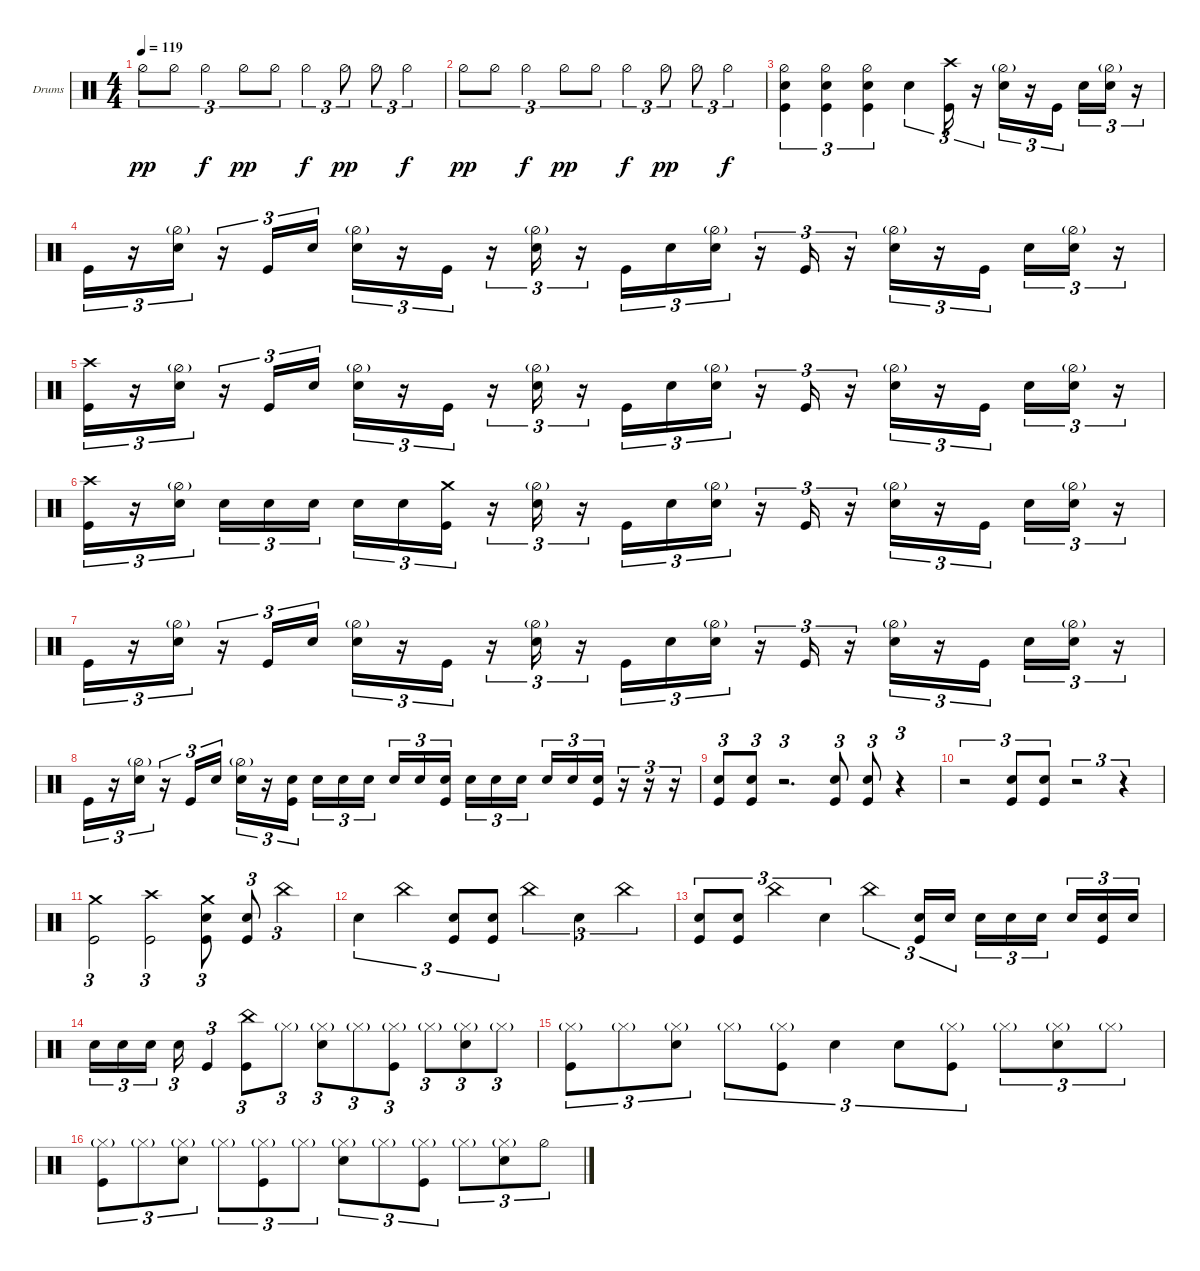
\defaultSystemsLayout 4
\bracketExtendMode groupsimilarinstruments
\firstSystemTrackNameOrientation horizontal
\otherSystemsTrackNameOrientation horizontal
\track ("Drumkit" "Drums") {instrument percussion}
\staff {score}
\articulation defaults
\ts (4 4)
\tempo 119
\clef neutral
\ks c "Hi-Hat (half)".8{tu (3 2) dy pp} "Hi-Hat (half)".8{tu (3 2)} "Hi-Hat (half)".4{tu (3 2) dy f} "Hi-Hat (half)".8{tu (3 2) dy pp} "Hi-Hat (half)".8{tu (3 2)} "Hi-Hat (half)".4{tu (3 2) dy f} "Hi-Hat (half)".8{tu (3 2) dy pp} "Hi-Hat (half)".8{tu (3 2)} "Hi-Hat (half)".4{tu (3 2) dy f}
|
"Hi-Hat (half)".8{tu (3 2) dy pp} "Hi-Hat (half)".8{tu (3 2)} "Hi-Hat (half)".4{tu (3 2) dy f} "Hi-Hat (half)".8{tu (3 2) dy pp} "Hi-Hat (half)".8{tu (3 2)} "Hi-Hat (half)".4{tu (3 2) dy f} "Hi-Hat (half)".8{tu (3 2) dy pp} "Hi-Hat (half)".8{tu (3 2)} "Hi-Hat (half)".4{tu (3 2) dy f} |
("Kick (hit)" "Hi-Hat (half)" "Snare (hit) 2").4{tu (3 2)} ("Kick (hit)" "Hi-Hat (half)" "Snare (hit) 2").4{tu (3 2)} ("Kick (hit)" "Hi-Hat (half)" "Snare (hit) 2").4{tu (3 2)} "Snare (hit) 2".4{tu (3 2)} ("Kick (hit)" "Crash high (hit)").16{tu (3 2)} r.16{tu (3 2)} ("Snare (hit) 2" "Hi-Hat (half)"{g}).16{tu (3 2)} r.16{tu (3 2)} "Kick (hit)".16{tu (3 2)} "Snare (hit) 2".16{tu (3 2)} ("Snare (hit) 2" "Hi-Hat (half)"{g}).16{tu (3 2)} r.16{tu (3 2)} |
"Kick (hit)".16{tu (3 2)} r.16{tu (3 2)} ("Snare (hit) 2" "Hi-Hat (half)"{g}).16{tu (3 2)} r.16{tu (3 2)} "Kick (hit)".16{tu (3 2)} "Snare (hit) 2".16{tu (3 2)} ("Snare (hit) 2" "Hi-Hat (half)"{g}).16{tu (3 2)} r.16{tu (3 2)} "Kick (hit)".16{tu (3 2)} r.16{tu (3 2)} ("Snare (hit) 2" "Hi-Hat (half)"{g}).16{tu (3 2)} r.16{tu (3 2)} "Kick (hit)".16{tu (3 2)} "Snare (hit) 2".16{tu (3 2)} ("Snare (hit) 2" "Hi-Hat (half)"{g}).16{tu (3 2)} r.16{tu (3 2)} "Kick (hit)".16{tu (3 2)} r.16{tu (3 2)} ("Snare (hit) 2" "Hi-Hat (half)"{g}).16{tu (3 2)} r.16{tu (3 2)} "Kick (hit)".16{tu (3 2)} "Snare (hit) 2".16{tu (3 2)} ("Snare (hit) 2" "Hi-Hat (half)"{g}).16{tu (3 2)} r.16{tu (3 2)} |
("Kick (hit)" "Crash high (hit)").16{tu (3 2)} r.16{tu (3 2)} ("Snare (hit) 2" "Hi-Hat (half)"{g}).16{tu (3 2)} r.16{tu (3 2)} "Kick (hit)".16{tu (3 2)} "Snare (hit) 2".16{tu (3 2)} ("Snare (hit) 2" "Hi-Hat (half)"{g}).16{tu (3 2)} r.16{tu (3 2)} "Kick (hit)".16{tu (3 2)} r.16{tu (3 2)} ("Snare (hit) 2" "Hi-Hat (half)"{g}).16{tu (3 2)} r.16{tu (3 2)} "Kick (hit)".16{tu (3 2)} "Snare (hit) 2".16{tu (3 2)} ("Snare (hit) 2" "Hi-Hat (half)"{g}).16{tu (3 2)} r.16{tu (3 2)} "Kick (hit)".16{tu (3 2)} r.16{tu (3 2)} ("Snare (hit) 2" "Hi-Hat (half)"{g}).16{tu (3 2)} r.16{tu (3 2)} "Kick (hit)".16{tu (3 2)} "Snare (hit) 2".16{tu (3 2)} ("Snare (hit) 2" "Hi-Hat (half)"{g}).16{tu (3 2)} r.16{tu (3 2)} |
("Kick (hit)" "Crash high (hit)").16{tu (3 2)} r.16{tu (3 2)} ("Snare (hit) 2" "Hi-Hat (half)"{g}).16{tu (3 2)} "Snare (hit) 2".16{tu (3 2)} "Snare (hit) 2".16{tu (3 2)} "Snare (hit) 2".16{tu (3 2)} "Snare (hit) 2".16{tu (3 2)} "Snare (hit) 2".16{tu (3 2)} ("Kick (hit)" "Crash medium (hit)").16{tu (3 2)} r.16{tu (3 2)} ("Snare (hit) 2" "Hi-Hat (half)"{g}).16{tu (3 2)} r.16{tu (3 2)} "Kick (hit)".16{tu (3 2)} "Snare (hit) 2".16{tu (3 2)} ("Snare (hit) 2" "Hi-Hat (half)"{g}).16{tu (3 2)} r.16{tu (3 2)} "Kick (hit)".16{tu (3 2)} r.16{tu (3 2)} ("Snare (hit) 2" "Hi-Hat (half)"{g}).16{tu (3 2)} r.16{tu (3 2)} "Kick (hit)".16{tu (3 2)} "Snare (hit) 2".16{tu (3 2)} ("Snare (hit) 2" "Hi-Hat (half)"{g}).16{tu (3 2)} r.16{tu (3 2)} |
"Kick (hit)".16{tu (3 2)} r.16{tu (3 2)} ("Snare (hit) 2" "Hi-Hat (half)"{g}).16{tu (3 2)} r.16{tu (3 2)} "Kick (hit)".16{tu (3 2)} "Snare (hit) 2".16{tu (3 2)} ("Snare (hit) 2" "Hi-Hat (half)"{g}).16{tu (3 2)} r.16{tu (3 2)} "Kick (hit)".16{tu (3 2)} r.16{tu (3 2)} ("Snare (hit) 2" "Hi-Hat (half)"{g}).16{tu (3 2)} r.16{tu (3 2)} "Kick (hit)".16{tu (3 2)} "Snare (hit) 2".16{tu (3 2)} ("Snare (hit) 2" "Hi-Hat (half)"{g}).16{tu (3 2)} r.16{tu (3 2)} "Kick (hit)".16{tu (3 2)} r.16{tu (3 2)} ("Snare (hit) 2" "Hi-Hat (half)"{g}).16{tu (3 2)} r.16{tu (3 2)} "Kick (hit)".16{tu (3 2)} "Snare (hit) 2".16{tu (3 2)} ("Snare (hit) 2" "Hi-Hat (half)"{g}).16{tu (3 2)} r.16{tu (3 2)} |
"Kick (hit)".16{tu (3 2)} r.16{tu (3 2)} ("Snare (hit) 2" "Hi-Hat (half)"{g}).16{tu (3 2)} r.16{tu (3 2)} "Kick (hit)".16{tu (3 2)} "Snare (hit) 2".16{tu (3 2)} ("Snare (hit) 2" "Hi-Hat (half)"{g}).16{tu (3 2)} r.16{tu (3 2)} ("Kick (hit)" "Snare (hit) 2").16{tu (3 2)} "Snare (hit) 2".16{tu (3 2)} "Snare (hit) 2".16{tu (3 2)} "Snare (hit) 2".16{tu (3 2)} "Snare (hit) 2".16{tu (3 2)} "Snare (hit) 2".16{tu (3 2)} ("Snare (hit) 2" "Kick (hit)").16{tu (3 2)} "Snare (hit) 2".16{tu (3 2)} "Snare (hit) 2".16{tu (3 2)} "Snare (hit) 2".16{tu (3 2)} "Snare (hit) 2".16{tu (3 2)} "Snare (hit) 2".16{tu (3 2)} ("Snare (hit) 2" "Kick (hit)").16{tu (3 2)} r.16{tu (3 2)} r.16{tu (3 2)} r.16{tu (3 2)} |
("Kick (hit)" "Snare (hit) 2").8{tu (3 2)} ("Kick (hit)" "Snare (hit) 2").8{tu (3 2)} r.2{d tu (3 2)} ("Kick (hit)" "Snare (hit) 2").8{tu (3 2)} ("Kick (hit)" "Snare (hit) 2").8{tu (3 2)} r.4{tu (3 2)} |
r.2{tu (3 2)} ("Kick (hit)" "Snare (hit) 2").8{tu (3 2)} ("Kick (hit)" "Snare (hit) 2").8{tu (3 2)} r.2{tu (3 2)} r.4{tu (3 2)} |
("Kick (hit)" "Crash medium (hit)").2{tu (3 2)} ("Kick (hit)" "Crash high (hit)").2{tu (3 2)} ("Kick (hit)" "Crash medium (hit)" "Snare (hit) 2").8{tu (3 2)} ("Kick (hit)" "Snare (hit) 2").8{tu (3 2)} "China (hit)".4{tu (3 2)} |
"Snare (hit) 2".4{tu (3 2)} "China (hit)".4{tu (3 2)} ("Kick (hit)" "Snare (hit) 2").8{tu (3 2)} ("Kick (hit)" "Snare (hit) 2").8{tu (3 2)} "China (hit)".4{tu (3 2)} "Snare (hit) 2".4{tu (3 2)} "China (hit)".4{tu (3 2)} |
("Kick (hit)" "Snare (hit) 2").8{tu (3 2)} ("Kick (hit)" "Snare (hit) 2").8{tu (3 2)} "China (hit)".4{tu (3 2)} "Snare (hit) 2".4{tu (3 2)} "China (hit)".4{tu (3 2)} ("Kick (hit)" "Snare (hit) 2").16{tu (3 2)} "Snare (hit) 2".16{tu (3 2)} "Snare (hit) 2".16{tu (3 2)} "Snare (hit) 2".16{tu (3 2)} "Snare (hit) 2".16{tu (3 2)} "Snare (hit) 2".16{tu (3 2)} ("Snare (hit) 2" "Kick (hit)").16{tu (3 2)} "Snare (hit) 2".16{tu (3 2)} |
"Snare (hit) 2".16{tu (3 2)} "Snare (hit) 2".16{tu (3 2)} "Snare (hit) 2".16{tu (3 2)} "Snare (hit) 2".16{tu (3 2)} "Kick (hit)".4{tu (3 2)} ("Kick (hit)" "China (hit)").8{tu (3 2)} "Hi-Hat (closed)"{g}.8{tu (3 2)} ("Snare (hit) 2" "Hi-Hat (closed)"{g}).8{tu (3 2)} "Hi-Hat (closed)"{g}.8{tu (3 2)} ("Kick (hit)" "Hi-Hat (closed)"{g}).8{tu (3 2)} "Hi-Hat (closed)"{g}.8{tu (3 2)} ("Snare (hit) 2" "Hi-Hat (closed)"{g}).8{tu (3 2)} "Hi-Hat (closed)"{g}.8{tu (3 2)} |
("Kick (hit)" "Hi-Hat (closed)"{g}).8{tu (3 2)} "Hi-Hat (closed)"{g}.8{tu (3 2)} ("Snare (hit) 2" "Hi-Hat (closed)"{g}).8{tu (3 2)} "Hi-Hat (closed)"{g}.8{tu (3 2)} ("Kick (hit)" "Hi-Hat (closed)"{g}).8{tu (3 2)} "Snare (hit) 2".4{tu (3 2)} "Snare (hit) 2".8{tu (3 2)} ("Kick (hit)" "Hi-Hat (closed)"{g}).8{tu (3 2)} "Hi-Hat (closed)"{g}.8{tu (3 2)} ("Snare (hit) 2" "Hi-Hat (closed)"{g}).8{tu (3 2)} "Hi-Hat (closed)"{g}.8{tu (3 2)} |
("Kick (hit)" "Hi-Hat (closed)"{g}).8{tu (3 2)} "Hi-Hat (closed)"{g}.8{tu (3 2)} ("Snare (hit) 2" "Hi-Hat (closed)"{g}).8{tu (3 2)} "Hi-Hat (closed)"{g}.8{tu (3 2)} ("Hi-Hat (closed)"{g} "Kick (hit)").8{tu (3 2)} "Hi-Hat (closed)"{g}.8{tu (3 2)} ("Hi-Hat (closed)"{g} "Snare (hit) 2").8{tu (3 2)} "Hi-Hat (closed)"{g}.8{tu (3 2)} ("Hi-Hat (closed)"{g} "Kick (hit)").8{tu (3 2)} "Hi-Hat (closed)"{g}.8{tu (3 2)} ("Hi-Hat (closed)"{g} "Snare (hit) 2").8{tu (3 2)} "Hi-Hat (half)".8{tu (3 2)}
